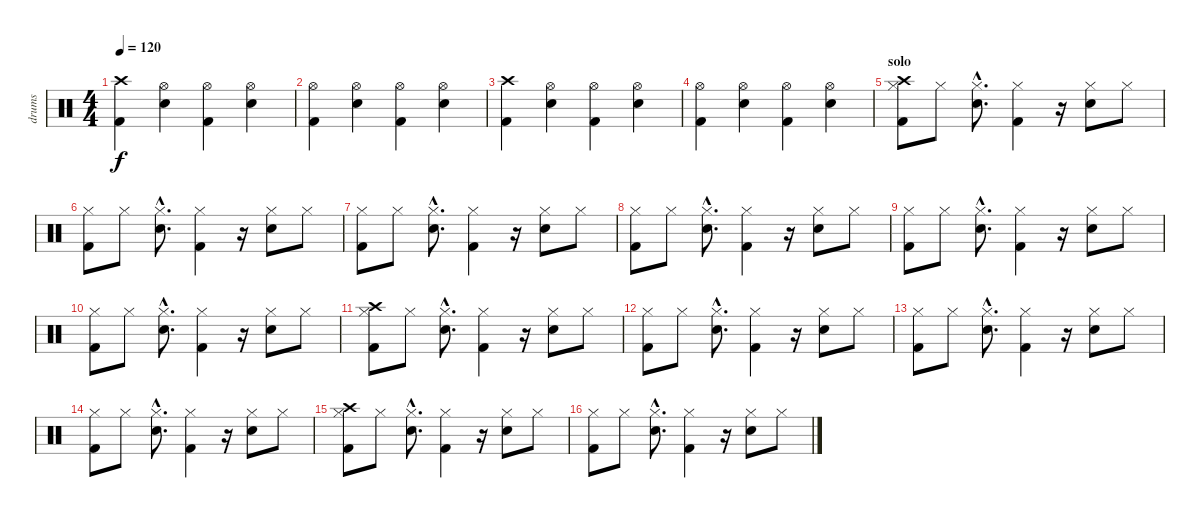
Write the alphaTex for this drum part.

\track ("drums" "drums") {instrument percussion}
\staff {score}
\articulation defaults
\ts (4 4)
\tempo 120
\clef neutral
\ks c
("Kick (hit) 2" "Crash high (hit)").4{dy f} ("Snare (hit) 2" "Hi-Hat (open)").4 ("Kick (hit) 2" "Hi-Hat (open)").4 ("Snare (hit) 2" "Hi-Hat (open)").4 |
("Kick (hit) 2" "Hi-Hat (open)").4 ("Snare (hit) 2" "Hi-Hat (open)").4 ("Kick (hit) 2" "Hi-Hat (open)").4 ("Snare (hit) 2" "Hi-Hat (open)").4 |
("Kick (hit) 2" "Crash high (hit)").4 ("Snare (hit) 2" "Hi-Hat (open)").4 ("Kick (hit) 2" "Hi-Hat (open)").4 ("Snare (hit) 2" "Hi-Hat (open)").4 |
("Kick (hit) 2" "Hi-Hat (open)").4 ("Snare (hit) 2" "Hi-Hat (open)").4 ("Kick (hit) 2" "Hi-Hat (open)").4 ("Snare (hit) 2" "Hi-Hat (open)").4 |
\section ("" "solo")
("Kick (hit) 2" "Hi-Hat (closed)" "Crash high (hit)").8 "Hi-Hat (closed)".8 ("Snare (hit) 2"{hac} "Hi-Hat (closed)"{hac}).8{d} ("Kick (hit) 2" "Hi-Hat (closed)").4 r.16 ("Snare (hit) 2" "Hi-Hat (closed)").8 "Hi-Hat (closed)".8 |
("Kick (hit) 2" "Hi-Hat (closed)").8 "Hi-Hat (closed)".8 ("Snare (hit) 2"{hac} "Hi-Hat (closed)"{hac}).8{d} ("Kick (hit) 2" "Hi-Hat (closed)").4 r.16 ("Snare (hit) 2" "Hi-Hat (closed)").8 "Hi-Hat (closed)".8 |
("Kick (hit) 2" "Hi-Hat (closed)").8 "Hi-Hat (closed)".8 ("Snare (hit) 2"{hac} "Hi-Hat (closed)"{hac}).8{d} ("Kick (hit) 2" "Hi-Hat (closed)").4 r.16 ("Snare (hit) 2" "Hi-Hat (closed)").8 "Hi-Hat (closed)".8 |
("Kick (hit) 2" "Hi-Hat (closed)").8 "Hi-Hat (closed)".8 ("Snare (hit) 2"{hac} "Hi-Hat (closed)"{hac}).8{d} ("Kick (hit) 2" "Hi-Hat (closed)").4 r.16 ("Snare (hit) 2" "Hi-Hat (closed)").8 "Hi-Hat (closed)".8 |
("Kick (hit) 2" "Hi-Hat (closed)").8 "Hi-Hat (closed)".8 ("Snare (hit) 2"{hac} "Hi-Hat (closed)"{hac}).8{d} ("Kick (hit) 2" "Hi-Hat (closed)").4 r.16 ("Snare (hit) 2" "Hi-Hat (closed)").8 "Hi-Hat (closed)".8 |
("Kick (hit) 2" "Hi-Hat (closed)").8 "Hi-Hat (closed)".8 ("Snare (hit) 2"{hac} "Hi-Hat (closed)"{hac}).8{d} ("Kick (hit) 2" "Hi-Hat (closed)").4 r.16 ("Snare (hit) 2" "Hi-Hat (closed)").8 "Hi-Hat (closed)".8 |
("Kick (hit) 2" "Hi-Hat (closed)" "Crash high (hit)").8 "Hi-Hat (closed)".8 ("Snare (hit) 2"{hac} "Hi-Hat (closed)"{hac}).8{d} ("Kick (hit) 2" "Hi-Hat (closed)").4 r.16 ("Snare (hit) 2" "Hi-Hat (closed)").8 "Hi-Hat (closed)".8 |
("Kick (hit) 2" "Hi-Hat (closed)").8 "Hi-Hat (closed)".8 ("Snare (hit) 2"{hac} "Hi-Hat (closed)"{hac}).8{d} ("Kick (hit) 2" "Hi-Hat (closed)").4 r.16 ("Snare (hit) 2" "Hi-Hat (closed)").8 "Hi-Hat (closed)".8 |
("Kick (hit) 2" "Hi-Hat (closed)").8 "Hi-Hat (closed)".8 ("Snare (hit) 2"{hac} "Hi-Hat (closed)"{hac}).8{d} ("Kick (hit) 2" "Hi-Hat (closed)").4 r.16 ("Snare (hit) 2" "Hi-Hat (closed)").8 "Hi-Hat (closed)".8 |
("Kick (hit) 2" "Hi-Hat (closed)").8 "Hi-Hat (closed)".8 ("Snare (hit) 2"{hac} "Hi-Hat (closed)"{hac}).8{d} ("Kick (hit) 2" "Hi-Hat (closed)").4 r.16 ("Snare (hit) 2" "Hi-Hat (closed)").8 "Hi-Hat (closed)".8 |
("Kick (hit) 2" "Hi-Hat (closed)" "Crash high (hit)").8 "Hi-Hat (closed)".8 ("Snare (hit) 2"{hac} "Hi-Hat (closed)"{hac}).8{d} ("Kick (hit) 2" "Hi-Hat (closed)").4 r.16 ("Snare (hit) 2" "Hi-Hat (closed)").8 "Hi-Hat (closed)".8 |
("Kick (hit) 2" "Hi-Hat (closed)").8 "Hi-Hat (closed)".8 ("Snare (hit) 2"{hac} "Hi-Hat (closed)"{hac}).8{d} ("Kick (hit) 2" "Hi-Hat (closed)").4 r.16 ("Snare (hit) 2" "Hi-Hat (closed)").8 "Hi-Hat (closed)".8
